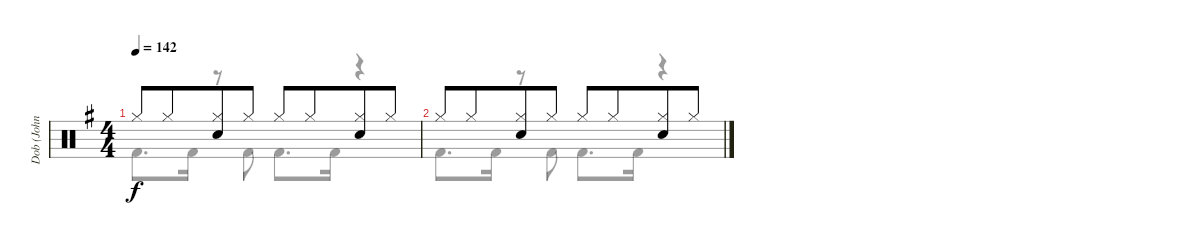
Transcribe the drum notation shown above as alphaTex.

\track ("Dob (John O'Reilly)" "Dob (John ") {instrument percussion}
\staff {score}
\articulation defaults
\voice
\ts (4 4)
\tempo 142
\clef neutral
\ks g "Hi-Hat (closed)".8{dy f} "Hi-Hat (closed)".8{beam merge}
("Hi-Hat (closed)" "Electric Snare (hit)").8 "Hi-Hat (closed)".8 "Hi-Hat (closed)".8 "Hi-Hat (closed)".8{beam merge} ("Hi-Hat (closed)" "Electric Snare (hit)").8 "Hi-Hat (closed)".8 |
"Hi-Hat (closed)".8 "Hi-Hat (closed)".8{beam merge} ("Hi-Hat (closed)" "Electric Snare (hit)").8 "Hi-Hat (closed)".8 "Hi-Hat (closed)".8 "Hi-Hat (closed)".8{beam merge} ("Hi-Hat (closed)" "Electric Snare (hit)").8 "Hi-Hat (closed)".8 |
\voice
\clef neutral
\ottava regular
\simile none
\ks g "Kick (hit) 2".8{d dy f} "Kick (hit) 2".16
r.8 "Kick (hit) 2".8 "Kick (hit) 2".8{d} "Kick (hit) 2".16 r.4 |
"Kick (hit) 2".8{d} "Kick (hit) 2".16 r.8 "Kick (hit) 2".8 "Kick (hit) 2".8{d} "Kick (hit) 2".16 r.4 |
